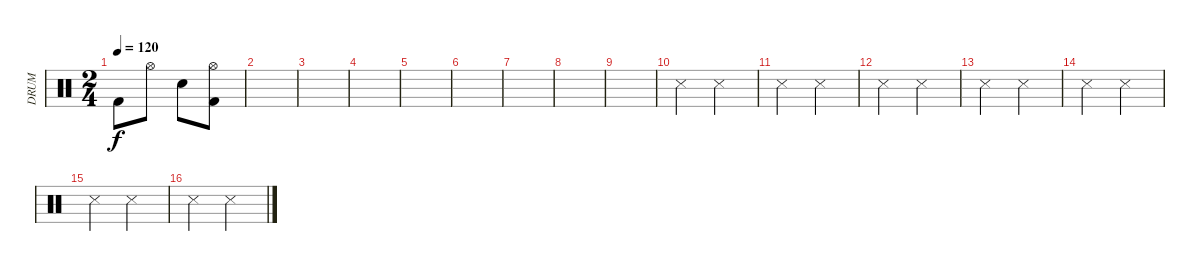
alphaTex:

\track ("DRUM" "DRUM") {instrument percussion}
\staff {score}
\articulation defaults
\ts (2 4)
\tempo 120
\clef neutral
\ks c "Kick (hit) 2".8{dy f} "Hi-Hat (open)".8 "Electric Snare (hit)".8
("Kick (hit) 2" "Hi-Hat (open)").8 |
|
|
|
|
|
|
|
|
"Snare (side stick) 3".4 "Snare (side stick) 3".4 |
"Snare (side stick) 3".4 "Snare (side stick) 3".4 |
"Snare (side stick) 3".4 "Snare (side stick) 3".4 |
"Snare (side stick) 3".4 "Snare (side stick) 3".4 |
"Snare (side stick) 3".4 "Snare (side stick) 3".4 |
"Snare (side stick) 3".4 "Snare (side stick) 3".4 |
"Snare (side stick) 3".4 "Snare (side stick) 3".4
